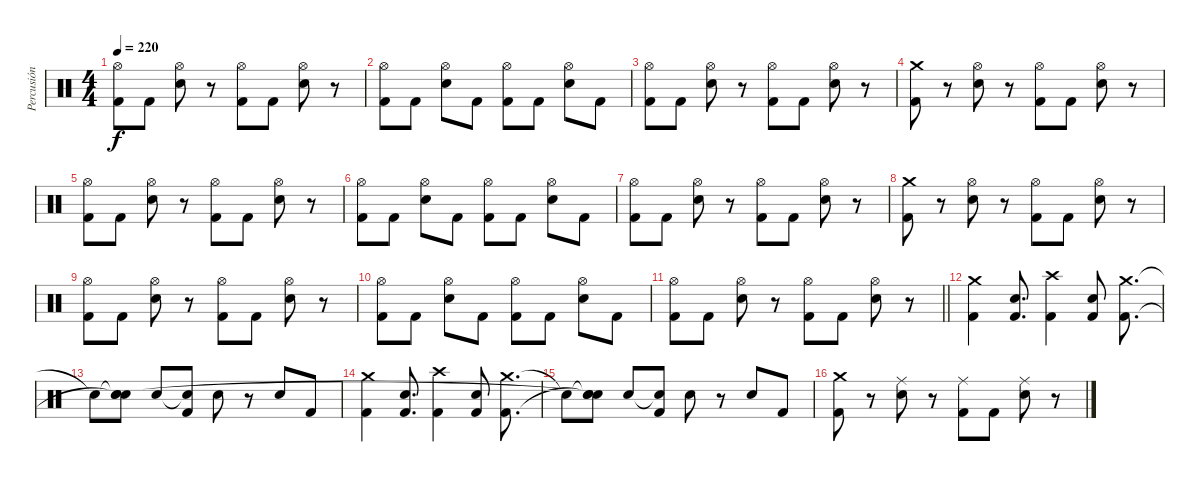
\track ("Percusión" "Percusión") {instrument percussion}
\staff {score}
\articulation defaults
\ts (4 4)
\tempo 220
\clef neutral
\ks c
("Hi-Hat (open)" "Kick (hit) 2").8{dy f} "Kick (hit) 2".8 ("Hi-Hat (open)" "Electric Snare (hit)").8 r.8 ("Hi-Hat (open)" "Kick (hit) 2").8 "Kick (hit) 2".8 ("Hi-Hat (open)" "Electric Snare (hit)").8 r.8 |
("Hi-Hat (open)" "Kick (hit) 2").8 "Kick (hit) 2".8 ("Hi-Hat (open)" "Electric Snare (hit)").8 "Kick (hit) 2".8 ("Hi-Hat (open)" "Kick (hit) 2").8 "Kick (hit) 2".8 ("Hi-Hat (open)" "Electric Snare (hit)").8 "Kick (hit) 2".8 |
("Hi-Hat (open)" "Kick (hit) 2").8 "Kick (hit) 2".8 ("Hi-Hat (open)" "Electric Snare (hit)").8 r.8 ("Hi-Hat (open)" "Kick (hit) 2").8 "Kick (hit) 2".8 ("Hi-Hat (open)" "Electric Snare (hit)").8 r.8 |
("Crash medium (hit)" "Kick (hit) 2").8 r.8 ("Hi-Hat (open)" "Electric Snare (hit)").8 r.8 ("Hi-Hat (open)" "Kick (hit) 2").8 "Kick (hit) 2".8 ("Hi-Hat (open)" "Electric Snare (hit)").8 r.8 |
("Hi-Hat (open)" "Kick (hit) 2").8 "Kick (hit) 2".8 ("Hi-Hat (open)" "Electric Snare (hit)").8 r.8 ("Hi-Hat (open)" "Kick (hit) 2").8 "Kick (hit) 2".8 ("Hi-Hat (open)" "Electric Snare (hit)").8 r.8 |
("Hi-Hat (open)" "Kick (hit) 2").8 "Kick (hit) 2".8 ("Hi-Hat (open)" "Electric Snare (hit)").8 "Kick (hit) 2".8 ("Hi-Hat (open)" "Kick (hit) 2").8 "Kick (hit) 2".8 ("Hi-Hat (open)" "Electric Snare (hit)").8 "Kick (hit) 2".8 |
("Hi-Hat (open)" "Kick (hit) 2").8 "Kick (hit) 2".8 ("Hi-Hat (open)" "Electric Snare (hit)").8 r.8 ("Hi-Hat (open)" "Kick (hit) 2").8 "Kick (hit) 2".8 ("Hi-Hat (open)" "Electric Snare (hit)").8 r.8 |
("Crash medium (hit)" "Kick (hit) 2").8 r.8 ("Hi-Hat (open)" "Electric Snare (hit)").8 r.8 ("Hi-Hat (open)" "Kick (hit) 2").8 "Kick (hit) 2".8 ("Hi-Hat (open)" "Electric Snare (hit)").8 r.8 |
("Hi-Hat (open)" "Kick (hit) 2").8 "Kick (hit) 2".8 ("Hi-Hat (open)" "Electric Snare (hit)").8 r.8 ("Hi-Hat (open)" "Kick (hit) 2").8 "Kick (hit) 2".8 ("Hi-Hat (open)" "Electric Snare (hit)").8 r.8 |
("Hi-Hat (open)" "Kick (hit) 2").8 "Kick (hit) 2".8 ("Hi-Hat (open)" "Electric Snare (hit)").8 "Kick (hit) 2".8 ("Hi-Hat (open)" "Kick (hit) 2").8 "Kick (hit) 2".8 ("Hi-Hat (open)" "Electric Snare (hit)").8 "Kick (hit) 2".8 |
\barLineRight lightlight
("Hi-Hat (open)" "Kick (hit) 2").8 "Kick (hit) 2".8 ("Hi-Hat (open)" "Electric Snare (hit)").8 r.8 ("Hi-Hat (open)" "Kick (hit) 2").8 "Kick (hit) 2".8 ("Hi-Hat (open)" "Electric Snare (hit)").8 r.8 |
("Crash medium (hit)" "Kick (hit) 2").4 ("Electric Snare (hit)" "Kick (hit) 2").8{d} ("Crash high (hit)" "Kick (hit) 2").4 ("Electric Snare (hit)" "Kick (hit) 2").8 ("Crash medium (hit)" "Kick (hit) 2").8{d} |
"Snare (hit)"{t}.8 ("Snare (hit)"{t} "Snare (hit)"{t} "Snare (hit)").8 "Electric Snare (hit)".8 ("Snare (hit)"{t} "Kick (hit) 2").8 "Electric Snare (hit)".8 r.8 "Electric Snare (hit)".8 "Kick (hit) 2".8 |
("Crash medium (hit)" "Kick (hit) 2").4 ("Electric Snare (hit)" "Kick (hit) 2").8{d} ("Crash high (hit)" "Kick (hit) 2").4 ("Electric Snare (hit)" "Kick (hit) 2").8 ("Crash medium (hit)" "Kick (hit) 2").8{d} |
"Snare (hit)"{t}.8 ("Snare (hit)"{t} "Snare (hit)"{t} "Snare (hit)"{t}).8 "Electric Snare (hit)".8 ("Snare (hit)"{t} "Kick (hit) 2").8 "Electric Snare (hit)".8 r.8 "Electric Snare (hit)".8 "Kick (hit) 2".8 |
("Crash medium (hit)" "Kick (hit) 2").8 r.8 ("Ride (middle)" "Electric Snare (hit)").8 r.8 ("Ride (middle)" "Kick (hit) 2").8 "Kick (hit) 2".8 ("Ride (middle)" "Electric Snare (hit)").8 r.8
